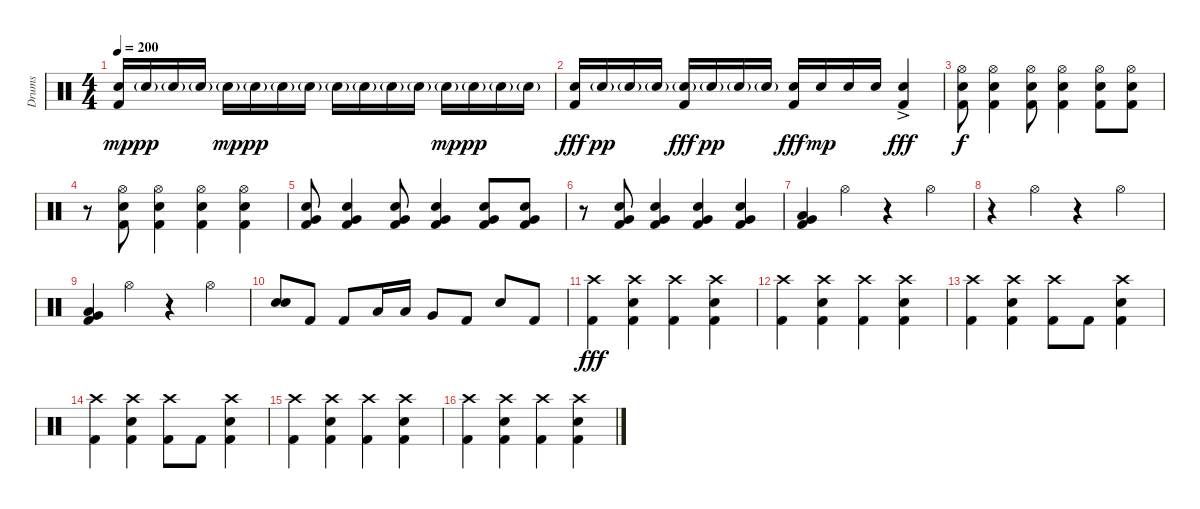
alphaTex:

\track ("Drums" "Drums") {instrument percussion}
\staff {score}
\articulation defaults
\ts (4 4)
\tempo 200
\clef neutral
\ks c
("Snare (hit) 2" "Kick (hit) 2").16{dy mp} "Snare (hit) 2"{g}.16{dy pp} "Snare (hit) 2"{g}.16 "Snare (hit) 2"{g}.16 "Snare (hit) 2"{g}.16{dy mp} "Snare (hit) 2"{g}.16{dy pp} "Snare (hit) 2"{g}.16 "Snare (hit) 2"{g}.16 "Snare (hit) 2"{g}.16 "Snare (hit) 2"{g}.16 "Snare (hit) 2"{g}.16 "Snare (hit) 2"{g}.16 "Snare (hit) 2"{g}.16{dy mp} "Snare (hit) 2"{g}.16{dy pp} "Snare (hit) 2"{g}.16 "Snare (hit) 2"{g}.16 |
("Snare (hit) 2" "Kick (hit) 2").16{dy fff} "Snare (hit) 2"{g}.16{dy pp} "Snare (hit) 2"{g}.16 "Snare (hit) 2"{g}.16 ("Snare (hit) 2"{g} "Kick (hit) 2").16{dy fff} "Snare (hit) 2"{g}.16{dy pp} "Snare (hit) 2"{g}.16 "Snare (hit) 2"{g}.16 ("Snare (hit) 2" "Kick (hit) 2").16{dy fff} "Snare (hit) 2".16{dy mp} "Snare (hit) 2".16 "Snare (hit) 2".16 ("Snare (hit) 2"{ac} "Kick (hit) 2"{ac}).4{dy fff} |
("Hi-Hat (open)" "Snare (hit) 2" "Kick (hit) 2").8{dy f} ("Hi-Hat (open)" "Snare (hit) 2" "Kick (hit) 2").4 ("Hi-Hat (open)" "Snare (hit) 2" "Kick (hit) 2").8 ("Hi-Hat (open)" "Snare (hit) 2" "Kick (hit) 2").4 ("Hi-Hat (open)" "Snare (hit) 2" "Kick (hit) 2").8 ("Hi-Hat (open)" "Snare (hit) 2" "Kick (hit) 2").8 |
r.8 ("Hi-Hat (open)" "Snare (hit) 2" "Kick (hit) 2").8 ("Hi-Hat (open)" "Snare (hit) 2" "Kick (hit) 2").4 ("Hi-Hat (open)" "Snare (hit) 2" "Kick (hit) 2").4 ("Hi-Hat (open)" "Snare (hit) 2" "Kick (hit) 2").4 |
("Very Low Tom (hit)" "Snare (hit) 2" "Kick (hit) 2").8 ("Very Low Tom (hit)" "Snare (hit) 2" "Kick (hit) 2").4 ("Very Low Tom (hit)" "Snare (hit) 2" "Kick (hit) 2").8 ("Very Low Tom (hit)" "Snare (hit) 2" "Kick (hit) 2").4 ("Very Low Tom (hit)" "Snare (hit) 2" "Kick (hit) 2").8 ("Very Low Tom (hit)" "Snare (hit) 2" "Kick (hit) 2").8 |
r.8 ("Very Low Tom (hit)" "Snare (hit) 2" "Kick (hit) 2").8 ("Very Low Tom (hit)" "Snare (hit) 2" "Kick (hit) 2").4 ("Very Low Tom (hit)" "Snare (hit) 2" "Kick (hit) 2").4 ("Very Low Tom (hit)" "Snare (hit) 2" "Kick (hit) 2").4 |
("Low Floor Tom (hit)" "Very Low Tom (hit)" "Kick (hit) 2").4 "Hi-Hat (open)".4 r.4 "Hi-Hat (open)".4 |
r.4 "Hi-Hat (open)".4 r.4 "Hi-Hat (open)".4 |
("Low Floor Tom (hit)" "Very Low Tom (hit)" "Kick (hit) 2").4 "Hi-Hat (open)".4 r.4 "Hi-Hat (open)".4 |
("Electric Snare (hit)" "Electric Snare (hit)").8 "Kick (hit) 2".8 "Kick (hit) 2".8 "Low Tom (hit)".16 "Low Tom (hit)".16 "Very Low Tom (hit)".8 "Kick (hit) 2".8 "Electric Snare (hit)".8 "Kick (hit) 2".8 |
("Crash high (hit)" "Kick (hit) 2").4{dy fff} ("Crash high (hit)" "Snare (hit) 2" "Kick (hit) 2").4 ("Crash high (hit)" "Kick (hit) 2").4 ("Crash high (hit)" "Snare (hit) 2" "Kick (hit) 2").4 |
("Crash high (hit)" "Kick (hit) 2").4 ("Crash high (hit)" "Snare (hit) 2" "Kick (hit) 2").4 ("Crash high (hit)" "Kick (hit) 2").4 ("Crash high (hit)" "Snare (hit) 2" "Kick (hit) 2").4 |
("Crash high (hit)" "Kick (hit) 2").4 ("Crash high (hit)" "Snare (hit) 2" "Kick (hit) 2").4 ("Crash high (hit)" "Kick (hit) 2").8 "Kick (hit) 2".8 ("Crash high (hit)" "Snare (hit) 2" "Kick (hit) 2").4 |
("Crash high (hit)" "Kick (hit) 2").4 ("Crash high (hit)" "Snare (hit) 2" "Kick (hit) 2").4 ("Crash high (hit)" "Kick (hit) 2").8 "Kick (hit) 2".8 ("Crash high (hit)" "Snare (hit) 2" "Kick (hit) 2").4 |
("Crash high (hit)" "Kick (hit) 2").4 ("Crash high (hit)" "Snare (hit) 2" "Kick (hit) 2").4 ("Crash high (hit)" "Kick (hit) 2").4 ("Crash high (hit)" "Snare (hit) 2" "Kick (hit) 2").4 |
("Crash high (hit)" "Kick (hit) 2").4 ("Crash high (hit)" "Snare (hit) 2" "Kick (hit) 2").4 ("Crash high (hit)" "Kick (hit) 2").4 ("Crash high (hit)" "Snare (hit) 2" "Kick (hit) 2").4
